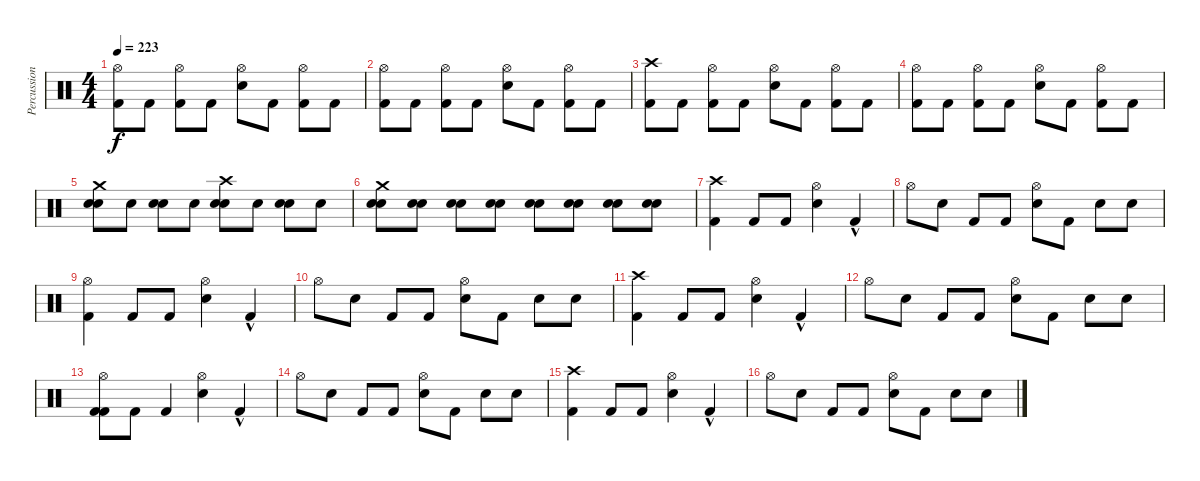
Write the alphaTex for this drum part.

\track ("Percussion" "Percussion") {instrument percussion}
\staff {score}
\articulation defaults
\ts (4 4)
\tempo 223
\clef neutral
\ks c
("Hi-Hat (open)" "Kick (hit) 2").8{dy f} "Kick (hit) 2".8 ("Hi-Hat (open)" "Kick (hit) 2").8 "Kick (hit) 2".8 ("Hi-Hat (open)" "Electric Snare (hit)").8 "Kick (hit) 2".8 ("Hi-Hat (open)" "Kick (hit) 2").8 "Kick (hit) 2".8 |
("Hi-Hat (open)" "Kick (hit) 2").8 "Kick (hit) 2".8 ("Hi-Hat (open)" "Kick (hit) 2").8 "Kick (hit) 2".8 ("Hi-Hat (open)" "Electric Snare (hit)").8 "Kick (hit) 2".8 ("Hi-Hat (open)" "Kick (hit) 2").8 "Kick (hit) 2".8 |
("Crash high (hit)" "Kick (hit) 2").8 "Kick (hit) 2".8 ("Hi-Hat (open)" "Kick (hit) 2").8 "Kick (hit) 2".8 ("Hi-Hat (open)" "Electric Snare (hit)").8 "Kick (hit) 2".8 ("Hi-Hat (open)" "Kick (hit) 2").8 "Kick (hit) 2".8 |
("Hi-Hat (open)" "Kick (hit) 2").8 "Kick (hit) 2".8 ("Hi-Hat (open)" "Kick (hit) 2").8 "Kick (hit) 2".8 ("Hi-Hat (open)" "Electric Snare (hit)").8 "Kick (hit) 2".8 ("Hi-Hat (open)" "Kick (hit) 2").8 "Kick (hit) 2".8 |
("Electric Snare (hit)" "Crash medium (hit)" "Electric Snare (hit)").8 "Electric Snare (hit)".8 ("Electric Snare (hit)" "Electric Snare (hit)").8 "Electric Snare (hit)".8 ("Electric Snare (hit)" "Crash high (hit)" "Electric Snare (hit)").8 "Electric Snare (hit)".8 ("Electric Snare (hit)" "Electric Snare (hit)").8 "Electric Snare (hit)".8 |
("Electric Snare (hit)" "Crash medium (hit)" "Electric Snare (hit)").8 ("Electric Snare (hit)" "Electric Snare (hit)").8 ("Electric Snare (hit)" "Electric Snare (hit)").8 ("Electric Snare (hit)" "Electric Snare (hit)").8 ("Electric Snare (hit)" "Electric Snare (hit)").8 ("Electric Snare (hit)" "Electric Snare (hit)").8 ("Electric Snare (hit)" "Electric Snare (hit)").8 ("Electric Snare (hit)" "Electric Snare (hit)").8 |
("Crash high (hit)" "Kick (hit) 2").4 "Kick (hit) 2".8 "Kick (hit) 2".8 ("Hi-Hat (open)" "Electric Snare (hit)").4 "Kick (hit) 2"{hac}.4 |
"Hi-Hat (open)".8 "Electric Snare (hit)".8 "Kick (hit) 2".8 "Kick (hit) 2".8 ("Hi-Hat (open)" "Electric Snare (hit)").8 "Kick (hit) 2".8 "Electric Snare (hit)".8 "Electric Snare (hit)".8 |
("Hi-Hat (open)" "Kick (hit) 2").4 "Kick (hit) 2".8 "Kick (hit) 2".8 ("Hi-Hat (open)" "Electric Snare (hit)").4 "Kick (hit) 2"{hac}.4 |
"Hi-Hat (open)".8 "Electric Snare (hit)".8 "Kick (hit) 2".8 "Kick (hit) 2".8 ("Hi-Hat (open)" "Electric Snare (hit)").8 "Kick (hit) 2".8 "Electric Snare (hit)".8 "Electric Snare (hit)".8 |
("Crash high (hit)" "Kick (hit) 2").4 "Kick (hit) 2".8 "Kick (hit) 2".8 ("Hi-Hat (open)" "Electric Snare (hit)").4 "Kick (hit) 2"{hac}.4 |
"Hi-Hat (open)".8 "Electric Snare (hit)".8 "Kick (hit) 2".8 "Kick (hit) 2".8 ("Hi-Hat (open)" "Electric Snare (hit)").8 "Kick (hit) 2".8 "Electric Snare (hit)".8 "Electric Snare (hit)".8 |
("Hi-Hat (open)" "Kick (hit) 2" "Kick (hit) 2").8 "Kick (hit) 2".8 "Kick (hit) 2".4 ("Hi-Hat (open)" "Electric Snare (hit)").4 "Kick (hit) 2"{hac}.4 |
"Hi-Hat (open)".8 "Electric Snare (hit)".8 "Kick (hit) 2".8 "Kick (hit) 2".8 ("Hi-Hat (open)" "Electric Snare (hit)").8 "Kick (hit) 2".8 "Electric Snare (hit)".8 "Electric Snare (hit)".8 |
("Crash high (hit)" "Kick (hit) 2").4 "Kick (hit) 2".8 "Kick (hit) 2".8 ("Hi-Hat (open)" "Electric Snare (hit)").4 "Kick (hit) 2"{hac}.4 |
"Hi-Hat (open)".8 "Electric Snare (hit)".8 "Kick (hit) 2".8 "Kick (hit) 2".8 ("Hi-Hat (open)" "Electric Snare (hit)").8 "Kick (hit) 2".8 "Electric Snare (hit)".8 "Electric Snare (hit)".8
